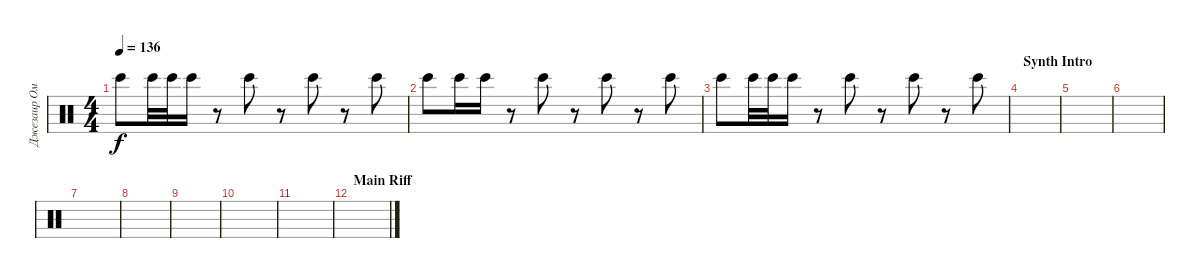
\track ("Джезаир Омер - Бонго" "Джезаир Ом") {instrument percussion}
\staff {score}
\articulation defaults
\ts (4 4)
\tempo 136
\clef neutral
\ks c "Bongo High (hit)".8{dy f} "Bongo High (hit)".32 "Bongo High (hit)".32 "Bongo High (hit)".16
r.8 "Bongo High (hit)".8 r.8 "Bongo High (hit)".8 r.8 "Bongo High (hit)".8 |
"Bongo High (hit)".8 "Bongo High (hit)".16 "Bongo High (hit)".16 r.8 "Bongo High (hit)".8 r.8 "Bongo High (hit)".8 r.8 "Bongo High (hit)".8 |
"Bongo High (hit)".8 "Bongo High (hit)".32 "Bongo High (hit)".32 "Bongo High (hit)".16 r.8 "Bongo High (hit)".8 r.8 "Bongo High (hit)".8 r.8 "Bongo High (hit)".8 |
\section ("" "Synth Intro")
|
|
|
|
|
|
|
|
\section ("" "Main Riff")
